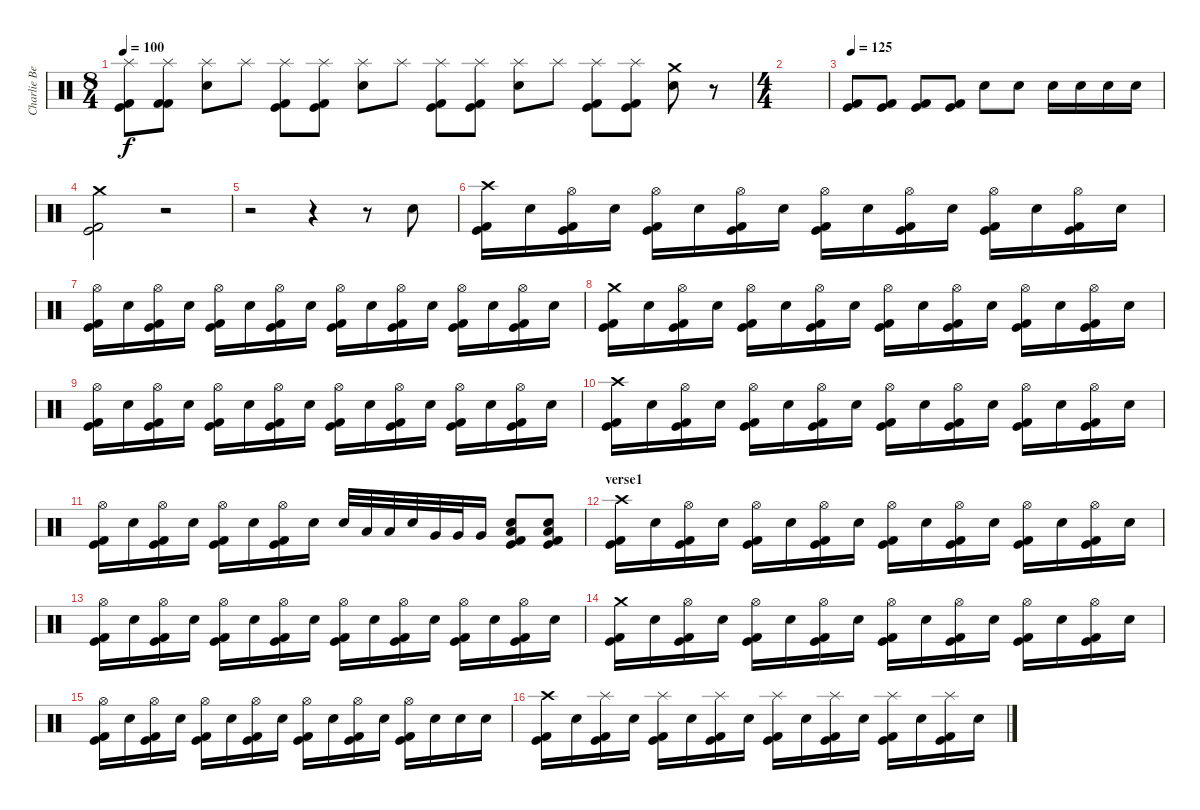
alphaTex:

\track ("Charlie Benante" "Charlie Be") {instrument percussion}
\staff {score}
\articulation defaults
\ts (8 4)
\tempo 100
\clef neutral
\ks c
("Splash (hit)" "Kick (hit)" "Kick (hit) 2").8{dy f} ("Splash (hit)" "Kick (hit) 2" "Kick (hit) 2").8 ("Splash (hit)" "Electric Snare (hit)").8 "Splash (hit)".8 ("Splash (hit)" "Kick (hit)" "Kick (hit) 2").8 ("Splash (hit)" "Kick (hit)" "Kick (hit) 2").8 ("Splash (hit)" "Electric Snare (hit)").8 "Splash (hit)".8 ("Splash (hit)" "Kick (hit)" "Kick (hit) 2").8 ("Splash (hit)" "Kick (hit)" "Kick (hit) 2").8 ("Splash (hit)" "Electric Snare (hit)").8 "Splash (hit)".8 ("Splash (hit)" "Kick (hit)" "Kick (hit) 2").8 ("Splash (hit)" "Kick (hit)" "Kick (hit) 2").8 ("Crash medium (hit)" "Electric Snare (hit)").8 r.8 |
\ts (4 4)
|
\tempo 125
("Kick (hit)" "Kick (hit) 2").8 ("Kick (hit)" "Kick (hit) 2").8 ("Kick (hit)" "Kick (hit) 2").8 ("Kick (hit)" "Kick (hit) 2").8 "Electric Snare (hit)".8 "Electric Snare (hit)".8 "Electric Snare (hit)".16 "Electric Snare (hit)".16 "Electric Snare (hit)".16 "Electric Snare (hit)".16 |
("Crash medium (hit)" "Kick (hit)" "Kick (hit) 2").2 r.2 |
r.2 r.4 r.8 "Electric Snare (hit)".8 |
("Crash high (hit)" "Kick (hit) 2" "Kick (hit)").16 "Electric Snare (hit)".16 ("Hi-Hat (open)" "Kick (hit) 2" "Kick (hit)").16 "Electric Snare (hit)".16 ("Hi-Hat (open)" "Kick (hit) 2" "Kick (hit)").16 "Electric Snare (hit)".16 ("Hi-Hat (open)" "Kick (hit) 2" "Kick (hit)").16 "Electric Snare (hit)".16 ("Hi-Hat (open)" "Kick (hit) 2" "Kick (hit)").16 "Electric Snare (hit)".16 ("Hi-Hat (open)" "Kick (hit) 2" "Kick (hit)").16 "Electric Snare (hit)".16 ("Hi-Hat (open)" "Kick (hit) 2" "Kick (hit)").16 "Electric Snare (hit)".16 ("Hi-Hat (open)" "Kick (hit) 2" "Kick (hit)").16 "Electric Snare (hit)".16 |
("Hi-Hat (open)" "Kick (hit) 2" "Kick (hit)").16 "Electric Snare (hit)".16 ("Hi-Hat (open)" "Kick (hit) 2" "Kick (hit)").16 "Electric Snare (hit)".16 ("Hi-Hat (open)" "Kick (hit) 2" "Kick (hit)").16 "Electric Snare (hit)".16 ("Hi-Hat (open)" "Kick (hit) 2" "Kick (hit)").16 "Electric Snare (hit)".16 ("Hi-Hat (open)" "Kick (hit) 2" "Kick (hit)").16 "Electric Snare (hit)".16 ("Hi-Hat (open)" "Kick (hit) 2" "Kick (hit)").16 "Electric Snare (hit)".16 ("Hi-Hat (open)" "Kick (hit) 2" "Kick (hit)").16 "Electric Snare (hit)".16 ("Hi-Hat (open)" "Kick (hit) 2" "Kick (hit)").16 "Electric Snare (hit)".16 |
("Crash medium (hit)" "Kick (hit) 2" "Kick (hit)").16 "Electric Snare (hit)".16 ("Hi-Hat (open)" "Kick (hit) 2" "Kick (hit)").16 "Electric Snare (hit)".16 ("Hi-Hat (open)" "Kick (hit) 2" "Kick (hit)").16 "Electric Snare (hit)".16 ("Hi-Hat (open)" "Kick (hit) 2" "Kick (hit)").16 "Electric Snare (hit)".16 ("Hi-Hat (open)" "Kick (hit) 2" "Kick (hit)").16 "Electric Snare (hit)".16 ("Hi-Hat (open)" "Kick (hit) 2" "Kick (hit)").16 "Electric Snare (hit)".16 ("Hi-Hat (open)" "Kick (hit) 2" "Kick (hit)").16 "Electric Snare (hit)".16 ("Hi-Hat (open)" "Kick (hit) 2" "Kick (hit)").16 "Electric Snare (hit)".16 |
("Hi-Hat (open)" "Kick (hit) 2" "Kick (hit)").16 "Electric Snare (hit)".16 ("Hi-Hat (open)" "Kick (hit) 2" "Kick (hit)").16 "Electric Snare (hit)".16 ("Hi-Hat (open)" "Kick (hit) 2" "Kick (hit)").16 "Electric Snare (hit)".16 ("Hi-Hat (open)" "Kick (hit) 2" "Kick (hit)").16 "Electric Snare (hit)".16 ("Hi-Hat (open)" "Kick (hit) 2" "Kick (hit)").16 "Electric Snare (hit)".16 ("Hi-Hat (open)" "Kick (hit) 2" "Kick (hit)").16 "Electric Snare (hit)".16 ("Hi-Hat (open)" "Kick (hit) 2" "Kick (hit)").16 "Electric Snare (hit)".16 ("Hi-Hat (open)" "Kick (hit) 2" "Kick (hit)").16 "Electric Snare (hit)".16 |
("Crash high (hit)" "Kick (hit) 2" "Kick (hit)").16 "Electric Snare (hit)".16 ("Hi-Hat (open)" "Kick (hit) 2" "Kick (hit)").16 "Electric Snare (hit)".16 ("Hi-Hat (open)" "Kick (hit) 2" "Kick (hit)").16 "Electric Snare (hit)".16 ("Hi-Hat (open)" "Kick (hit) 2" "Kick (hit)").16 "Electric Snare (hit)".16 ("Hi-Hat (open)" "Kick (hit) 2" "Kick (hit)").16 "Electric Snare (hit)".16 ("Hi-Hat (open)" "Kick (hit) 2" "Kick (hit)").16 "Electric Snare (hit)".16 ("Hi-Hat (open)" "Kick (hit) 2" "Kick (hit)").16 "Electric Snare (hit)".16 ("Hi-Hat (open)" "Kick (hit) 2" "Kick (hit)").16 "Electric Snare (hit)".16 |
("Hi-Hat (open)" "Kick (hit) 2" "Kick (hit)").16 "Electric Snare (hit)".16 ("Hi-Hat (open)" "Kick (hit) 2" "Kick (hit)").16 "Electric Snare (hit)".16 ("Hi-Hat (open)" "Kick (hit) 2" "Kick (hit)").16 "Electric Snare (hit)".16 ("Hi-Hat (open)" "Kick (hit) 2" "Kick (hit)").16 "Electric Snare (hit)".16 "Electric Snare (hit)".32 "Low Tom (hit)".32 "Low Tom (hit)".32 "Electric Snare (hit)".32 "Very Low Tom (hit)".32 "Very Low Tom (hit)".32 "Very Low Tom (hit)".16 ("Low Floor Tom (hit)" "Electric Snare (hit)" "Kick (hit) 2" "Kick (hit)").8 ("Low Floor Tom (hit)" "Electric Snare (hit)" "Kick (hit) 2" "Kick (hit)").8 |
\section ("" "verse1")
("Crash high (hit)" "Kick (hit) 2" "Kick (hit)").16 "Electric Snare (hit)".16 ("Hi-Hat (open)" "Kick (hit) 2" "Kick (hit)").16 "Electric Snare (hit)".16 ("Hi-Hat (open)" "Kick (hit) 2" "Kick (hit)").16 "Electric Snare (hit)".16 ("Hi-Hat (open)" "Kick (hit) 2" "Kick (hit)").16 "Electric Snare (hit)".16 ("Hi-Hat (open)" "Kick (hit) 2" "Kick (hit)").16 "Electric Snare (hit)".16 ("Hi-Hat (open)" "Kick (hit) 2" "Kick (hit)").16 "Electric Snare (hit)".16 ("Hi-Hat (open)" "Kick (hit) 2" "Kick (hit)").16 "Electric Snare (hit)".16 ("Hi-Hat (open)" "Kick (hit) 2" "Kick (hit)").16 "Electric Snare (hit)".16 |
("Hi-Hat (open)" "Kick (hit) 2" "Kick (hit)").16 "Electric Snare (hit)".16 ("Hi-Hat (open)" "Kick (hit) 2" "Kick (hit)").16 "Electric Snare (hit)".16 ("Hi-Hat (open)" "Kick (hit) 2" "Kick (hit)").16 "Electric Snare (hit)".16 ("Hi-Hat (open)" "Kick (hit) 2" "Kick (hit)").16 "Electric Snare (hit)".16 ("Hi-Hat (open)" "Kick (hit) 2" "Kick (hit)").16 "Electric Snare (hit)".16 ("Hi-Hat (open)" "Kick (hit) 2" "Kick (hit)").16 "Electric Snare (hit)".16 ("Hi-Hat (open)" "Kick (hit) 2" "Kick (hit)").16 "Electric Snare (hit)".16 ("Hi-Hat (open)" "Kick (hit) 2" "Kick (hit)").16 "Electric Snare (hit)".16 |
("Crash medium (hit)" "Kick (hit) 2" "Kick (hit)").16 "Electric Snare (hit)".16 ("Hi-Hat (open)" "Kick (hit) 2" "Kick (hit)").16 "Electric Snare (hit)".16 ("Hi-Hat (open)" "Kick (hit) 2" "Kick (hit)").16 "Electric Snare (hit)".16 ("Hi-Hat (open)" "Kick (hit) 2" "Kick (hit)").16 "Electric Snare (hit)".16 ("Hi-Hat (open)" "Kick (hit) 2" "Kick (hit)").16 "Electric Snare (hit)".16 ("Hi-Hat (open)" "Kick (hit) 2" "Kick (hit)").16 "Electric Snare (hit)".16 ("Hi-Hat (open)" "Kick (hit) 2" "Kick (hit)").16 "Electric Snare (hit)".16 ("Hi-Hat (open)" "Kick (hit) 2" "Kick (hit)").16 "Electric Snare (hit)".16 |
("Hi-Hat (open)" "Kick (hit) 2" "Kick (hit)").16 "Electric Snare (hit)".16 ("Hi-Hat (open)" "Kick (hit) 2" "Kick (hit)").16 "Electric Snare (hit)".16 ("Hi-Hat (open)" "Kick (hit) 2" "Kick (hit)").16 "Electric Snare (hit)".16 ("Hi-Hat (open)" "Kick (hit) 2" "Kick (hit)").16 "Electric Snare (hit)".16 ("Hi-Hat (open)" "Kick (hit) 2" "Kick (hit)").16 "Electric Snare (hit)".16 ("Hi-Hat (open)" "Kick (hit) 2" "Kick (hit)").16 "Electric Snare (hit)".16 ("Hi-Hat (open)" "Kick (hit) 2" "Kick (hit)").16 "Electric Snare (hit)".16 "Electric Snare (hit)".16 "Electric Snare (hit)".16 |
("Crash high (hit)" "Kick (hit) 2" "Kick (hit)").16 "Electric Snare (hit)".16 ("Splash (hit)" "Kick (hit) 2" "Kick (hit)").16 "Electric Snare (hit)".16 ("Splash (hit)" "Kick (hit) 2" "Kick (hit)").16 "Electric Snare (hit)".16 ("Splash (hit)" "Kick (hit) 2" "Kick (hit)").16 "Electric Snare (hit)".16 ("Splash (hit)" "Kick (hit) 2" "Kick (hit)").16 "Electric Snare (hit)".16 ("Splash (hit)" "Kick (hit) 2" "Kick (hit)").16 "Electric Snare (hit)".16 ("Splash (hit)" "Kick (hit) 2" "Kick (hit)").16 "Electric Snare (hit)".16 ("Splash (hit)" "Kick (hit) 2" "Kick (hit)").16 "Electric Snare (hit)".16
